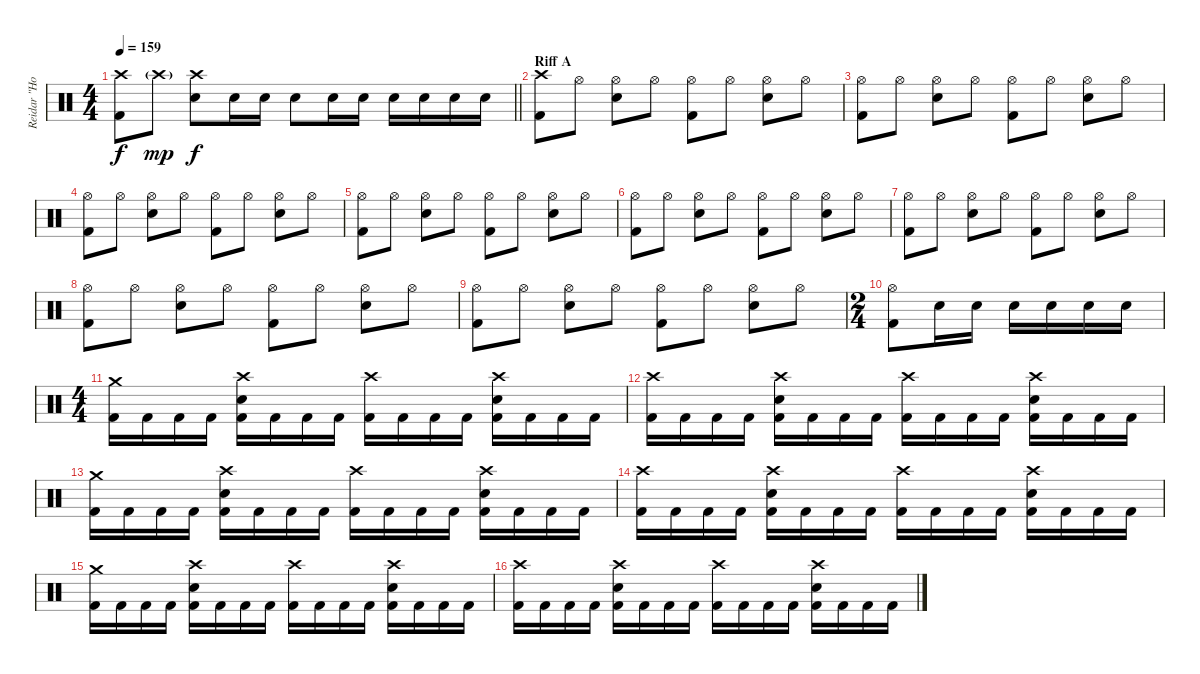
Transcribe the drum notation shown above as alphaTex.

\track ("Reidar \"Horgh\" Horghagen " "Reidar \"Ho") {instrument percussion}
\staff {score}
\articulation defaults
\ts (4 4)
\tempo 159
\clef neutral
\barLineRight lightlight
\ks c
("Crash high (hit)" "Kick (hit) 2").8{dy f} "Crash high (hit)"{g}.8{dy mp} ("Crash high (hit)" "Snare (hit) 2").8{dy f} "Snare (hit) 2".16 "Snare (hit) 2".16 "Snare (hit) 2".8 "Snare (hit) 2".16 "Snare (hit) 2".16 "Snare (hit) 2".16 "Snare (hit) 2".16 "Snare (hit) 2".16 "Snare (hit) 2".16 |
\section ("" "Riff A")
("Crash high (hit)" "Kick (hit) 2").8 "Hi-Hat (open)".8 ("Hi-Hat (open)" "Snare (hit) 2").8 "Hi-Hat (open)".8 ("Hi-Hat (open)" "Kick (hit) 2").8 "Hi-Hat (open)".8 ("Hi-Hat (open)" "Snare (hit) 2").8 "Hi-Hat (open)".8 |
("Hi-Hat (open)" "Kick (hit) 2").8 "Hi-Hat (open)".8 ("Hi-Hat (open)" "Snare (hit) 2").8 "Hi-Hat (open)".8 ("Hi-Hat (open)" "Kick (hit) 2").8 "Hi-Hat (open)".8 ("Hi-Hat (open)" "Snare (hit) 2").8 "Hi-Hat (open)".8 |
("Hi-Hat (open)" "Kick (hit) 2").8 "Hi-Hat (open)".8 ("Hi-Hat (open)" "Snare (hit) 2").8 "Hi-Hat (open)".8 ("Hi-Hat (open)" "Kick (hit) 2").8 "Hi-Hat (open)".8 ("Hi-Hat (open)" "Snare (hit) 2").8 "Hi-Hat (open)".8 |
("Hi-Hat (open)" "Kick (hit) 2").8 "Hi-Hat (open)".8 ("Hi-Hat (open)" "Snare (hit) 2").8 "Hi-Hat (open)".8 ("Hi-Hat (open)" "Kick (hit) 2").8 "Hi-Hat (open)".8 ("Hi-Hat (open)" "Snare (hit) 2").8 "Hi-Hat (open)".8 |
("Hi-Hat (open)" "Kick (hit) 2").8 "Hi-Hat (open)".8 ("Hi-Hat (open)" "Snare (hit) 2").8 "Hi-Hat (open)".8 ("Hi-Hat (open)" "Kick (hit) 2").8 "Hi-Hat (open)".8 ("Hi-Hat (open)" "Snare (hit) 2").8 "Hi-Hat (open)".8 |
("Hi-Hat (open)" "Kick (hit) 2").8 "Hi-Hat (open)".8 ("Hi-Hat (open)" "Snare (hit) 2").8 "Hi-Hat (open)".8 ("Hi-Hat (open)" "Kick (hit) 2").8 "Hi-Hat (open)".8 ("Hi-Hat (open)" "Snare (hit) 2").8 "Hi-Hat (open)".8 |
("Hi-Hat (open)" "Kick (hit) 2").8 "Hi-Hat (open)".8 ("Hi-Hat (open)" "Snare (hit) 2").8 "Hi-Hat (open)".8 ("Hi-Hat (open)" "Kick (hit) 2").8 "Hi-Hat (open)".8 ("Hi-Hat (open)" "Snare (hit) 2").8 "Hi-Hat (open)".8 |
("Hi-Hat (open)" "Kick (hit) 2").8 "Hi-Hat (open)".8 ("Hi-Hat (open)" "Snare (hit) 2").8 "Hi-Hat (open)".8 ("Hi-Hat (open)" "Kick (hit) 2").8 "Hi-Hat (open)".8 ("Hi-Hat (open)" "Snare (hit) 2").8 "Hi-Hat (open)".8 |
\ts (2 4)
("Hi-Hat (open)" "Kick (hit) 2").8 "Snare (hit) 2".16 "Snare (hit) 2".16 "Snare (hit) 2".16 "Snare (hit) 2".16 "Snare (hit) 2".16 "Snare (hit) 2".16 |
\ts (4 4)
("Crash medium (hit)" "Kick (hit) 2").16 "Kick (hit) 2".16 "Kick (hit) 2".16 "Kick (hit) 2".16 ("Crash high (hit)" "Snare (hit) 2" "Kick (hit) 2").16 "Kick (hit) 2".16 "Kick (hit) 2".16 "Kick (hit) 2".16 ("Crash high (hit)" "Kick (hit) 2").16 "Kick (hit) 2".16 "Kick (hit) 2".16 "Kick (hit) 2".16 ("Crash high (hit)" "Snare (hit) 2" "Kick (hit) 2").16 "Kick (hit) 2".16 "Kick (hit) 2".16 "Kick (hit) 2".16 |
("Crash high (hit)" "Kick (hit) 2").16 "Kick (hit) 2".16 "Kick (hit) 2".16 "Kick (hit) 2".16 ("Crash high (hit)" "Snare (hit) 2" "Kick (hit) 2").16 "Kick (hit) 2".16 "Kick (hit) 2".16 "Kick (hit) 2".16 ("Crash high (hit)" "Kick (hit) 2").16 "Kick (hit) 2".16 "Kick (hit) 2".16 "Kick (hit) 2".16 ("Crash high (hit)" "Snare (hit) 2" "Kick (hit) 2").16 "Kick (hit) 2".16 "Kick (hit) 2".16 "Kick (hit) 2".16 |
("Crash medium (hit)" "Kick (hit) 2").16 "Kick (hit) 2".16 "Kick (hit) 2".16 "Kick (hit) 2".16 ("Crash high (hit)" "Snare (hit) 2" "Kick (hit) 2").16 "Kick (hit) 2".16 "Kick (hit) 2".16 "Kick (hit) 2".16 ("Crash high (hit)" "Kick (hit) 2").16 "Kick (hit) 2".16 "Kick (hit) 2".16 "Kick (hit) 2".16 ("Crash high (hit)" "Snare (hit) 2" "Kick (hit) 2").16 "Kick (hit) 2".16 "Kick (hit) 2".16 "Kick (hit) 2".16 |
("Crash high (hit)" "Kick (hit) 2").16 "Kick (hit) 2".16 "Kick (hit) 2".16 "Kick (hit) 2".16 ("Crash high (hit)" "Snare (hit) 2" "Kick (hit) 2").16 "Kick (hit) 2".16 "Kick (hit) 2".16 "Kick (hit) 2".16 ("Crash high (hit)" "Kick (hit) 2").16 "Kick (hit) 2".16 "Kick (hit) 2".16 "Kick (hit) 2".16 ("Crash high (hit)" "Snare (hit) 2" "Kick (hit) 2").16 "Kick (hit) 2".16 "Kick (hit) 2".16 "Kick (hit) 2".16 |
("Crash medium (hit)" "Kick (hit) 2").16 "Kick (hit) 2".16 "Kick (hit) 2".16 "Kick (hit) 2".16 ("Crash high (hit)" "Snare (hit) 2" "Kick (hit) 2").16 "Kick (hit) 2".16 "Kick (hit) 2".16 "Kick (hit) 2".16 ("Crash high (hit)" "Kick (hit) 2").16 "Kick (hit) 2".16 "Kick (hit) 2".16 "Kick (hit) 2".16 ("Crash high (hit)" "Snare (hit) 2" "Kick (hit) 2").16 "Kick (hit) 2".16 "Kick (hit) 2".16 "Kick (hit) 2".16 |
("Crash high (hit)" "Kick (hit) 2").16 "Kick (hit) 2".16 "Kick (hit) 2".16 "Kick (hit) 2".16 ("Crash high (hit)" "Snare (hit) 2" "Kick (hit) 2").16 "Kick (hit) 2".16 "Kick (hit) 2".16 "Kick (hit) 2".16 ("Crash high (hit)" "Kick (hit) 2").16 "Kick (hit) 2".16 "Kick (hit) 2".16 "Kick (hit) 2".16 ("Crash high (hit)" "Snare (hit) 2" "Kick (hit) 2").16 "Kick (hit) 2".16 "Kick (hit) 2".16 "Kick (hit) 2".16
